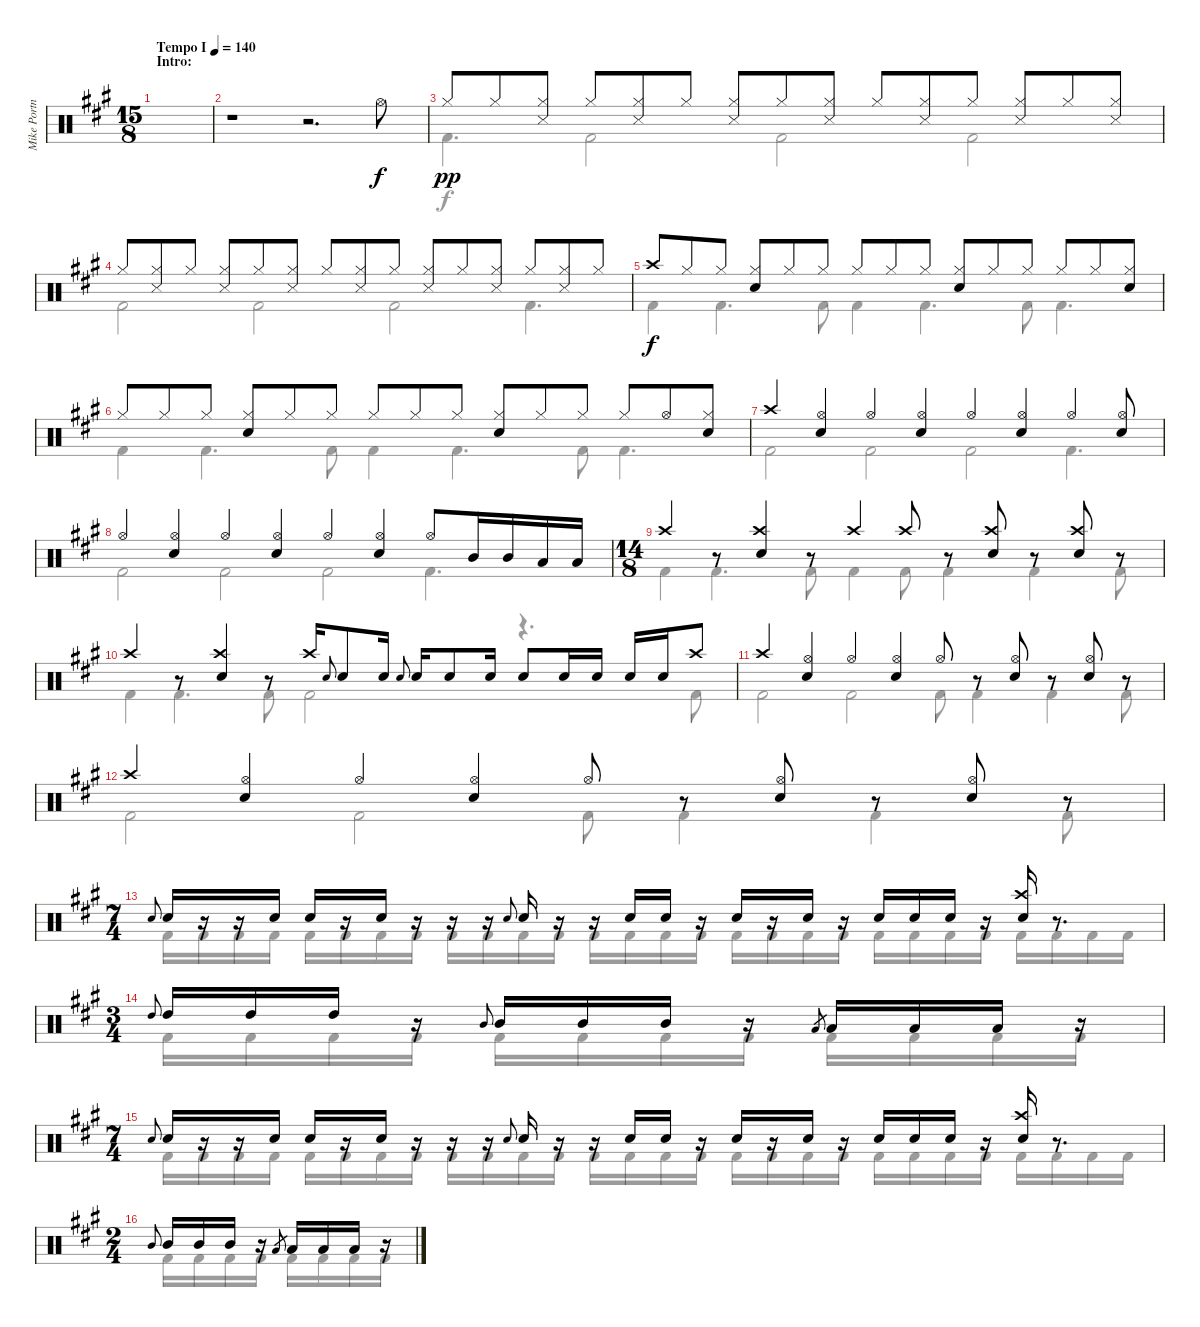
\track ("Mike Portnoy - Drum" "Mike Portn") {instrument percussion}
\staff {score}
\articulation defaults
\voice
\ts (15 8)
\section ("" "Intro:")
\tempo (140 "Tempo I")
\clef neutral
\ks a
|
r.1 r.2{d} "Hi-Hat (open)".8 |
"Hi-Hat (closed)".8{dy pp} "Hi-Hat (closed)".8 ("Hi-Hat (closed)" "Snare (side stick) 3").8 "Hi-Hat (closed)".8 ("Hi-Hat (closed)" "Snare (side stick) 3").8 "Hi-Hat (closed)".8 ("Hi-Hat (closed)" "Snare (side stick) 3").8 "Hi-Hat (closed)".8 ("Hi-Hat (closed)" "Snare (side stick) 3").8 "Hi-Hat (closed)".8 ("Hi-Hat (closed)" "Snare (side stick) 3").8 "Hi-Hat (closed)".8 ("Hi-Hat (closed)" "Snare (side stick) 3").8 "Hi-Hat (closed)".8 ("Hi-Hat (closed)" "Snare (side stick) 3").8 |
"Hi-Hat (closed)".8 ("Hi-Hat (closed)" "Snare (side stick) 3").8 "Hi-Hat (closed)".8 ("Hi-Hat (closed)" "Snare (side stick) 3").8 "Hi-Hat (closed)".8 ("Hi-Hat (closed)" "Snare (side stick) 3").8 "Hi-Hat (closed)".8 ("Hi-Hat (closed)" "Snare (side stick) 3").8 "Hi-Hat (closed)".8 ("Hi-Hat (closed)" "Snare (side stick) 3").8 "Hi-Hat (closed)".8 ("Hi-Hat (closed)" "Snare (side stick) 3").8 "Hi-Hat (closed)".8 ("Hi-Hat (closed)" "Snare (side stick) 3").8 "Hi-Hat (closed)".8 |
"Crash high (hit)".8{dy f} "Hi-Hat (closed)".8 "Hi-Hat (closed)".8 ("Hi-Hat (closed)" "Electric Snare (hit)").8 "Hi-Hat (closed)".8 "Hi-Hat (closed)".8 "Hi-Hat (closed)".8 "Hi-Hat (closed)".8 "Hi-Hat (closed)".8 ("Hi-Hat (closed)" "Electric Snare (hit)").8 "Hi-Hat (closed)".8 "Hi-Hat (closed)".8 "Hi-Hat (closed)".8 "Hi-Hat (closed)".8 ("Hi-Hat (closed)" "Electric Snare (hit)").8 |
"Hi-Hat (closed)".8 "Hi-Hat (closed)".8 "Hi-Hat (closed)".8 ("Hi-Hat (closed)" "Electric Snare (hit)").8 "Hi-Hat (closed)".8 "Hi-Hat (closed)".8 "Hi-Hat (closed)".8 "Hi-Hat (closed)".8 "Hi-Hat (closed)".8 ("Hi-Hat (closed)" "Electric Snare (hit)").8 "Hi-Hat (closed)".8 "Hi-Hat (closed)".8 "Hi-Hat (closed)".8 "Hi-Hat (open)".8 ("Hi-Hat (closed)" "Electric Snare (hit)").8 |
"Crash high (hit)".4 ("Hi-Hat (open)" "Electric Snare (hit)").4 "Hi-Hat (open)".4 ("Hi-Hat (open)" "Electric Snare (hit)").4 "Hi-Hat (open)".4 ("Hi-Hat (open)" "Electric Snare (hit)").4 "Hi-Hat (open)".4 ("Hi-Hat (open)" "Electric Snare (hit)").8 |
"Hi-Hat (open)".4 ("Hi-Hat (open)" "Electric Snare (hit)").4 "Hi-Hat (open)".4 ("Hi-Hat (open)" "Electric Snare (hit)").4 "Hi-Hat (open)".4 ("Hi-Hat (open)" "Electric Snare (hit)").4 "Hi-Hat (open)".8 "Mid Tom (hit)".16 "Mid Tom (hit)".16 "Low Tom (hit)".16 "Low Tom (hit)".16 |
\ts (14 8)
"Crash high (hit)".4 r.8 ("Crash high (hit)" "Electric Snare (hit)").4 r.8 "Crash high (hit)".4 "Crash high (hit)".8 r.8 ("Crash high (hit)" "Electric Snare (hit)").8 r.8 ("Crash high (hit)" "Electric Snare (hit)").8 r.8 |
"Crash high (hit)".4 r.8 ("Crash high (hit)" "Electric Snare (hit)").4 r.8 "Crash high (hit)".16 "Electric Snare (hit)".8{gr onbeat} "Electric Snare (hit)".8 "Electric Snare (hit)".16 "Electric Snare (hit)".8{gr onbeat} "Electric Snare (hit)".16 "Electric Snare (hit)".8 "Electric Snare (hit)".16 "Electric Snare (hit)".8 "Electric Snare (hit)".16 "Electric Snare (hit)".16 "Electric Snare (hit)".16 "Electric Snare (hit)".16 "Crash high (hit)".8 |
"Crash high (hit)".4 ("Hi-Hat (open)" "Electric Snare (hit)").4 "Hi-Hat (open)".4 ("Hi-Hat (open)" "Electric Snare (hit)").4 "Hi-Hat (open)".8 r.8 ("Hi-Hat (open)" "Electric Snare (hit)").8 r.8 ("Hi-Hat (open)" "Electric Snare (hit)").8 r.8 |
"Crash high (hit)".4 ("Hi-Hat (open)" "Electric Snare (hit)").4 "Hi-Hat (open)".4 ("Hi-Hat (open)" "Electric Snare (hit)").4 "Hi-Hat (open)".8 r.8 ("Hi-Hat (open)" "Electric Snare (hit)").8 r.8 ("Hi-Hat (open)" "Electric Snare (hit)").8 r.8 |
\ts (7 4)
"Electric Snare (hit)".8{gr onbeat} "Electric Snare (hit)".16 r.16 r.16 "Electric Snare (hit)".16 "Electric Snare (hit)".16 r.16 "Electric Snare (hit)".16 r.16 r.16 r.16 "Electric Snare (hit)".8{gr onbeat} "Electric Snare (hit)".16 r.16 r.16 "Electric Snare (hit)".16 "Electric Snare (hit)".16 r.16 "Electric Snare (hit)".16 r.16 "Electric Snare (hit)".16 r.16 "Electric Snare (hit)".16 "Electric Snare (hit)".16 "Electric Snare (hit)".16 r.16 ("Crash high (hit)" "Electric Snare (hit)").16 r.8{d} |
\ts (3 4)
"High Tom (hit)".8{gr onbeat} "High Tom (hit)".16 "High Tom (hit)".16 "High Tom (hit)".16 r.16 "Mid Tom (hit)".8{gr onbeat} "Mid Tom (hit)".16 "Mid Tom (hit)".16 "Mid Tom (hit)".16 r.16 "Low Tom (hit)".8{gr} "Low Tom (hit)".16 "Low Tom (hit)".16 "Low Tom (hit)".16 r.16 |
\ts (7 4)
"Electric Snare (hit)".8{gr onbeat} "Electric Snare (hit)".16 r.16 r.16 "Electric Snare (hit)".16 "Electric Snare (hit)".16 r.16 "Electric Snare (hit)".16 r.16 r.16 r.16 "Electric Snare (hit)".8{gr onbeat} "Electric Snare (hit)".16 r.16 r.16 "Electric Snare (hit)".16 "Electric Snare (hit)".16 r.16 "Electric Snare (hit)".16 r.16 "Electric Snare (hit)".16 r.16 "Electric Snare (hit)".16 "Electric Snare (hit)".16 "Electric Snare (hit)".16 r.16 ("Crash high (hit)" "Electric Snare (hit)").16 r.8{d} |
\ts (2 4)
"Mid Tom (hit)".8{gr onbeat} "Mid Tom (hit)".16 "Mid Tom (hit)".16 "Mid Tom (hit)".16 r.16 "Low Tom (hit)".8{gr} "Low Tom (hit)".16 "Low Tom (hit)".16 "Low Tom (hit)".16 r.16
\voice
\clef neutral
\ottava regular
\simile none
\ks a
|
|
"Kick (hit) 2".4{d} "Kick (hit) 2".2 "Kick (hit) 2".2 "Kick (hit) 2".2 |
"Kick (hit) 2".2 "Kick (hit) 2".2 "Kick (hit) 2".2 "Kick (hit) 2".4{d} |
"Kick (hit) 2".4 "Kick (hit) 2".4{d} "Kick (hit) 2".8 "Kick (hit) 2".4 "Kick (hit) 2".4{d} "Kick (hit) 2".8 "Kick (hit) 2".4{d} |
"Kick (hit) 2".4 "Kick (hit) 2".4{d} "Kick (hit) 2".8 "Kick (hit) 2".4 "Kick (hit) 2".4{d} "Kick (hit) 2".8 "Kick (hit) 2".4{d} |
"Kick (hit) 2".2 "Kick (hit) 2".2 "Kick (hit) 2".2 "Kick (hit) 2".4{d} |
"Kick (hit) 2".2 "Kick (hit) 2".2 "Kick (hit) 2".2 "Kick (hit) 2".4{d} |
"Kick (hit) 2".4 "Kick (hit) 2".4{d} "Kick (hit) 2".8 "Kick (hit) 2".4 "Kick (hit) 2".8 "Kick (hit) 2".4 "Kick (hit) 2".4 "Kick (hit) 2".8 |
"Kick (hit) 2".4 "Kick (hit) 2".4{d} "Kick (hit) 2".8 "Kick (hit) 2".2 r.4{d} "Kick (hit) 2".8 |
"Kick (hit) 2".2 "Kick (hit) 2".2 "Kick (hit) 2".8 "Kick (hit) 2".4 "Kick (hit) 2".4 "Kick (hit) 2".8 |
"Kick (hit) 2".2 "Kick (hit) 2".2 "Kick (hit) 2".8 "Kick (hit) 2".4 "Kick (hit) 2".4 "Kick (hit) 2".8 |
"Kick (hit) 2".16 "Kick (hit) 2".16 "Kick (hit) 2".16 "Kick (hit) 2".16 "Kick (hit) 2".16 "Kick (hit) 2".16 "Kick (hit) 2".16 "Kick (hit) 2".16 "Kick (hit) 2".16 "Kick (hit) 2".16 "Kick (hit) 2".16 "Kick (hit) 2".16 "Kick (hit) 2".16 "Kick (hit) 2".16 "Kick (hit) 2".16 "Kick (hit) 2".16 "Kick (hit) 2".16 "Kick (hit) 2".16 "Kick (hit) 2".16 "Kick (hit) 2".16 "Kick (hit) 2".16 "Kick (hit) 2".16 "Kick (hit) 2".16 "Kick (hit) 2".16 "Kick (hit) 2".16 "Kick (hit) 2".16 "Kick (hit) 2".16 "Kick (hit) 2".16 |
"Kick (hit) 2".16 "Kick (hit) 2".16 "Kick (hit) 2".16 "Kick (hit) 2".16 "Kick (hit) 2".16 "Kick (hit) 2".16 "Kick (hit) 2".16 "Kick (hit) 2".16 "Kick (hit) 2".16 "Kick (hit) 2".16 "Kick (hit) 2".16 "Kick (hit) 2".16 |
"Kick (hit) 2".16 "Kick (hit) 2".16 "Kick (hit) 2".16 "Kick (hit) 2".16 "Kick (hit) 2".16 "Kick (hit) 2".16 "Kick (hit) 2".16 "Kick (hit) 2".16 "Kick (hit) 2".16 "Kick (hit) 2".16 "Kick (hit) 2".16 "Kick (hit) 2".16 "Kick (hit) 2".16 "Kick (hit) 2".16 "Kick (hit) 2".16 "Kick (hit) 2".16 "Kick (hit) 2".16 "Kick (hit) 2".16 "Kick (hit) 2".16 "Kick (hit) 2".16 "Kick (hit) 2".16 "Kick (hit) 2".16 "Kick (hit) 2".16 "Kick (hit) 2".16 "Kick (hit) 2".16 "Kick (hit) 2".16 "Kick (hit) 2".16 "Kick (hit) 2".16 |
"Kick (hit) 2".16 "Kick (hit) 2".16 "Kick (hit) 2".16 "Kick (hit) 2".16 "Kick (hit) 2".16 "Kick (hit) 2".16 "Kick (hit) 2".16 "Kick (hit) 2".16
